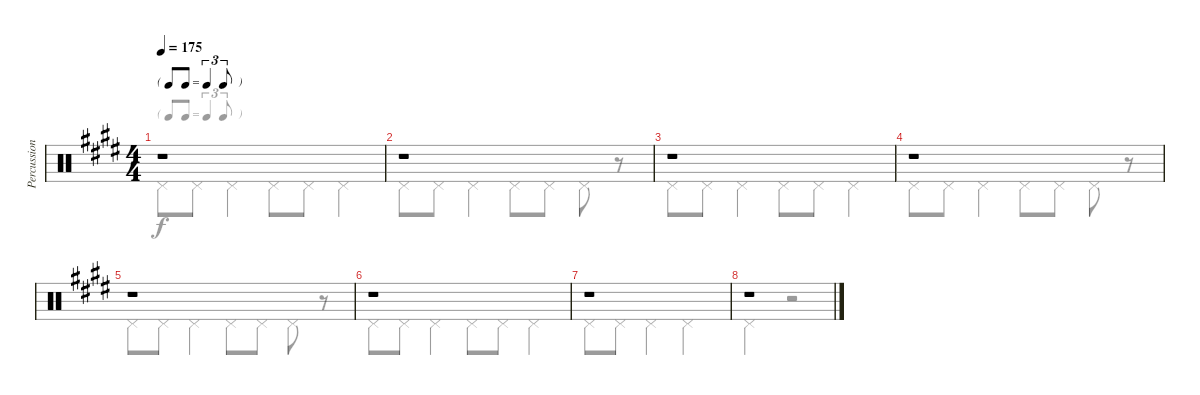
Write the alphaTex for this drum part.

\track ("Percussion" "Percussion") {instrument percussion}
\staff {score}
\articulation defaults
\voice
\ts (4 4)
\tf triplet8th
\tempo 175
\clef neutral
\ks e
r.1{dy f} |
r.1 |
r.1 |
r.1 |
r.1 |
r.1 |
r.1 |
r.1
\voice
\clef neutral
\ottava regular
\simile none
\ks e "Pedal Hi-Hat (hit)".8{dy f} "Pedal Hi-Hat (hit)".8 "Pedal Hi-Hat (hit)".4 "Pedal Hi-Hat (hit)".8 "Pedal Hi-Hat (hit)".8 "Pedal Hi-Hat (hit)".4
|
"Pedal Hi-Hat (hit)".8 "Pedal Hi-Hat (hit)".8 "Pedal Hi-Hat (hit)".4 "Pedal Hi-Hat (hit)".8 "Pedal Hi-Hat (hit)".8 "Pedal Hi-Hat (hit)".8 r.8 |
"Pedal Hi-Hat (hit)".8 "Pedal Hi-Hat (hit)".8 "Pedal Hi-Hat (hit)".4 "Pedal Hi-Hat (hit)".8 "Pedal Hi-Hat (hit)".8 "Pedal Hi-Hat (hit)".4 |
"Pedal Hi-Hat (hit)".8 "Pedal Hi-Hat (hit)".8 "Pedal Hi-Hat (hit)".4 "Pedal Hi-Hat (hit)".8 "Pedal Hi-Hat (hit)".8 "Pedal Hi-Hat (hit)".8 r.8 |
"Pedal Hi-Hat (hit)".8 "Pedal Hi-Hat (hit)".8 "Pedal Hi-Hat (hit)".4 "Pedal Hi-Hat (hit)".8 "Pedal Hi-Hat (hit)".8 "Pedal Hi-Hat (hit)".8 r.8 |
"Pedal Hi-Hat (hit)".8 "Pedal Hi-Hat (hit)".8 "Pedal Hi-Hat (hit)".4 "Pedal Hi-Hat (hit)".8 "Pedal Hi-Hat (hit)".8 "Pedal Hi-Hat (hit)".4 |
"Pedal Hi-Hat (hit)".8 "Pedal Hi-Hat (hit)".8 "Pedal Hi-Hat (hit)".4 "Pedal Hi-Hat (hit)".2 |
"Pedal Hi-Hat (hit)".2 r.2
